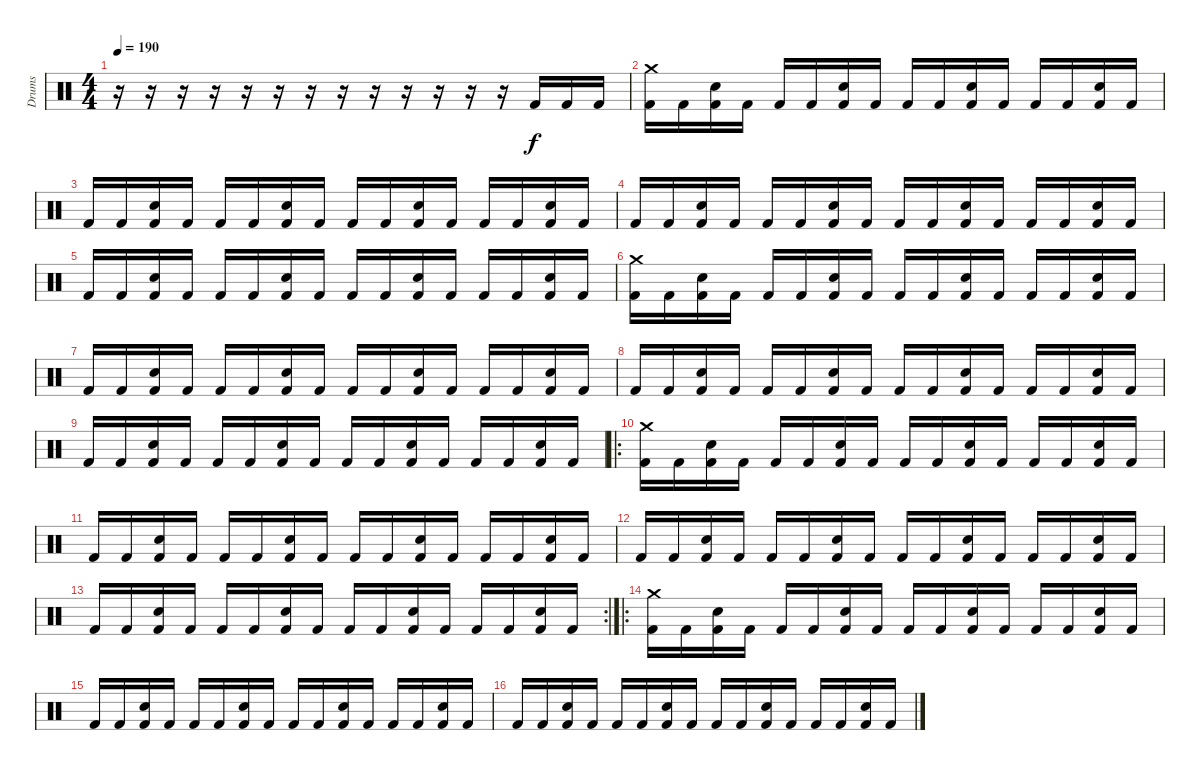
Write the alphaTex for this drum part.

\track ("Drums" "Drums") {instrument percussion}
\staff {score}
\articulation defaults
\ts (4 4)
\tempo 190
\clef neutral
\ks c
r.16{dy f} r.16 r.16 r.16 r.16 r.16 r.16 r.16 r.16 r.16 r.16 r.16 r.16 "Kick (hit) 2".16 "Kick (hit) 2".16 "Kick (hit) 2".16 |
("Crash medium (hit)" "Kick (hit) 2").16 "Kick (hit) 2".16 ("Electric Snare (hit)" "Kick (hit) 2").16 "Kick (hit) 2".16 "Kick (hit) 2".16 "Kick (hit) 2".16 ("Electric Snare (hit)" "Kick (hit) 2").16 "Kick (hit) 2".16 "Kick (hit) 2".16 "Kick (hit) 2".16 ("Electric Snare (hit)" "Kick (hit) 2").16 "Kick (hit) 2".16 "Kick (hit) 2".16 "Kick (hit) 2".16 ("Electric Snare (hit)" "Kick (hit) 2").16 "Kick (hit) 2".16 |
"Kick (hit) 2".16 "Kick (hit) 2".16 ("Electric Snare (hit)" "Kick (hit) 2").16 "Kick (hit) 2".16 "Kick (hit) 2".16 "Kick (hit) 2".16 ("Electric Snare (hit)" "Kick (hit) 2").16 "Kick (hit) 2".16 "Kick (hit) 2".16 "Kick (hit) 2".16 ("Electric Snare (hit)" "Kick (hit) 2").16 "Kick (hit) 2".16 "Kick (hit) 2".16 "Kick (hit) 2".16 ("Electric Snare (hit)" "Kick (hit) 2").16 "Kick (hit) 2".16 |
"Kick (hit) 2".16 "Kick (hit) 2".16 ("Electric Snare (hit)" "Kick (hit) 2").16 "Kick (hit) 2".16 "Kick (hit) 2".16 "Kick (hit) 2".16 ("Electric Snare (hit)" "Kick (hit) 2").16 "Kick (hit) 2".16 "Kick (hit) 2".16 "Kick (hit) 2".16 ("Electric Snare (hit)" "Kick (hit) 2").16 "Kick (hit) 2".16 "Kick (hit) 2".16 "Kick (hit) 2".16 ("Electric Snare (hit)" "Kick (hit) 2").16 "Kick (hit) 2".16 |
"Kick (hit) 2".16 "Kick (hit) 2".16 ("Electric Snare (hit)" "Kick (hit) 2").16 "Kick (hit) 2".16 "Kick (hit) 2".16 "Kick (hit) 2".16 ("Electric Snare (hit)" "Kick (hit) 2").16 "Kick (hit) 2".16 "Kick (hit) 2".16 "Kick (hit) 2".16 ("Electric Snare (hit)" "Kick (hit) 2").16 "Kick (hit) 2".16 "Kick (hit) 2".16 "Kick (hit) 2".16 ("Electric Snare (hit)" "Kick (hit) 2").16 "Kick (hit) 2".16 |
("Crash medium (hit)" "Kick (hit) 2").16 "Kick (hit) 2".16 ("Electric Snare (hit)" "Kick (hit) 2").16 "Kick (hit) 2".16 "Kick (hit) 2".16 "Kick (hit) 2".16 ("Electric Snare (hit)" "Kick (hit) 2").16 "Kick (hit) 2".16 "Kick (hit) 2".16 "Kick (hit) 2".16 ("Electric Snare (hit)" "Kick (hit) 2").16 "Kick (hit) 2".16 "Kick (hit) 2".16 "Kick (hit) 2".16 ("Electric Snare (hit)" "Kick (hit) 2").16 "Kick (hit) 2".16 |
"Kick (hit) 2".16 "Kick (hit) 2".16 ("Electric Snare (hit)" "Kick (hit) 2").16 "Kick (hit) 2".16 "Kick (hit) 2".16 "Kick (hit) 2".16 ("Electric Snare (hit)" "Kick (hit) 2").16 "Kick (hit) 2".16 "Kick (hit) 2".16 "Kick (hit) 2".16 ("Electric Snare (hit)" "Kick (hit) 2").16 "Kick (hit) 2".16 "Kick (hit) 2".16 "Kick (hit) 2".16 ("Electric Snare (hit)" "Kick (hit) 2").16 "Kick (hit) 2".16 |
"Kick (hit) 2".16 "Kick (hit) 2".16 ("Electric Snare (hit)" "Kick (hit) 2").16 "Kick (hit) 2".16 "Kick (hit) 2".16 "Kick (hit) 2".16 ("Electric Snare (hit)" "Kick (hit) 2").16 "Kick (hit) 2".16 "Kick (hit) 2".16 "Kick (hit) 2".16 ("Electric Snare (hit)" "Kick (hit) 2").16 "Kick (hit) 2".16 "Kick (hit) 2".16 "Kick (hit) 2".16 ("Electric Snare (hit)" "Kick (hit) 2").16 "Kick (hit) 2".16 |
"Kick (hit) 2".16 "Kick (hit) 2".16 ("Electric Snare (hit)" "Kick (hit) 2").16 "Kick (hit) 2".16 "Kick (hit) 2".16 "Kick (hit) 2".16 ("Electric Snare (hit)" "Kick (hit) 2").16 "Kick (hit) 2".16 "Kick (hit) 2".16 "Kick (hit) 2".16 ("Electric Snare (hit)" "Kick (hit) 2").16 "Kick (hit) 2".16 "Kick (hit) 2".16 "Kick (hit) 2".16 ("Electric Snare (hit)" "Kick (hit) 2").16 "Kick (hit) 2".16 |
\ro
("Crash medium (hit)" "Kick (hit) 2").16 "Kick (hit) 2".16 ("Electric Snare (hit)" "Kick (hit) 2").16 "Kick (hit) 2".16 "Kick (hit) 2".16 "Kick (hit) 2".16 ("Electric Snare (hit)" "Kick (hit) 2").16 "Kick (hit) 2".16 "Kick (hit) 2".16 "Kick (hit) 2".16 ("Electric Snare (hit)" "Kick (hit) 2").16 "Kick (hit) 2".16 "Kick (hit) 2".16 "Kick (hit) 2".16 ("Electric Snare (hit)" "Kick (hit) 2").16 "Kick (hit) 2".16 |
"Kick (hit) 2".16 "Kick (hit) 2".16 ("Electric Snare (hit)" "Kick (hit) 2").16 "Kick (hit) 2".16 "Kick (hit) 2".16 "Kick (hit) 2".16 ("Electric Snare (hit)" "Kick (hit) 2").16 "Kick (hit) 2".16 "Kick (hit) 2".16 "Kick (hit) 2".16 ("Electric Snare (hit)" "Kick (hit) 2").16 "Kick (hit) 2".16 "Kick (hit) 2".16 "Kick (hit) 2".16 ("Electric Snare (hit)" "Kick (hit) 2").16 "Kick (hit) 2".16 |
"Kick (hit) 2".16 "Kick (hit) 2".16 ("Electric Snare (hit)" "Kick (hit) 2").16 "Kick (hit) 2".16 "Kick (hit) 2".16 "Kick (hit) 2".16 ("Electric Snare (hit)" "Kick (hit) 2").16 "Kick (hit) 2".16 "Kick (hit) 2".16 "Kick (hit) 2".16 ("Electric Snare (hit)" "Kick (hit) 2").16 "Kick (hit) 2".16 "Kick (hit) 2".16 "Kick (hit) 2".16 ("Electric Snare (hit)" "Kick (hit) 2").16 "Kick (hit) 2".16 |
\rc 2 "Kick (hit) 2".16 "Kick (hit) 2".16
("Electric Snare (hit)" "Kick (hit) 2").16 "Kick (hit) 2".16 "Kick (hit) 2".16 "Kick (hit) 2".16 ("Electric Snare (hit)" "Kick (hit) 2").16 "Kick (hit) 2".16 "Kick (hit) 2".16 "Kick (hit) 2".16 ("Electric Snare (hit)" "Kick (hit) 2").16 "Kick (hit) 2".16 "Kick (hit) 2".16 "Kick (hit) 2".16 ("Electric Snare (hit)" "Kick (hit) 2").16 "Kick (hit) 2".16 |
\ro
("Crash medium (hit)" "Kick (hit) 2").16 "Kick (hit) 2".16 ("Electric Snare (hit)" "Kick (hit) 2").16 "Kick (hit) 2".16 "Kick (hit) 2".16 "Kick (hit) 2".16 ("Electric Snare (hit)" "Kick (hit) 2").16 "Kick (hit) 2".16 "Kick (hit) 2".16 "Kick (hit) 2".16 ("Electric Snare (hit)" "Kick (hit) 2").16 "Kick (hit) 2".16 "Kick (hit) 2".16 "Kick (hit) 2".16 ("Electric Snare (hit)" "Kick (hit) 2").16 "Kick (hit) 2".16 |
"Kick (hit) 2".16 "Kick (hit) 2".16 ("Electric Snare (hit)" "Kick (hit) 2").16 "Kick (hit) 2".16 "Kick (hit) 2".16 "Kick (hit) 2".16 ("Electric Snare (hit)" "Kick (hit) 2").16 "Kick (hit) 2".16 "Kick (hit) 2".16 "Kick (hit) 2".16 ("Electric Snare (hit)" "Kick (hit) 2").16 "Kick (hit) 2".16 "Kick (hit) 2".16 "Kick (hit) 2".16 ("Electric Snare (hit)" "Kick (hit) 2").16 "Kick (hit) 2".16 |
"Kick (hit) 2".16 "Kick (hit) 2".16 ("Electric Snare (hit)" "Kick (hit) 2").16 "Kick (hit) 2".16 "Kick (hit) 2".16 "Kick (hit) 2".16 ("Electric Snare (hit)" "Kick (hit) 2").16 "Kick (hit) 2".16 "Kick (hit) 2".16 "Kick (hit) 2".16 ("Electric Snare (hit)" "Kick (hit) 2").16 "Kick (hit) 2".16 "Kick (hit) 2".16 "Kick (hit) 2".16 ("Electric Snare (hit)" "Kick (hit) 2").16 "Kick (hit) 2".16
